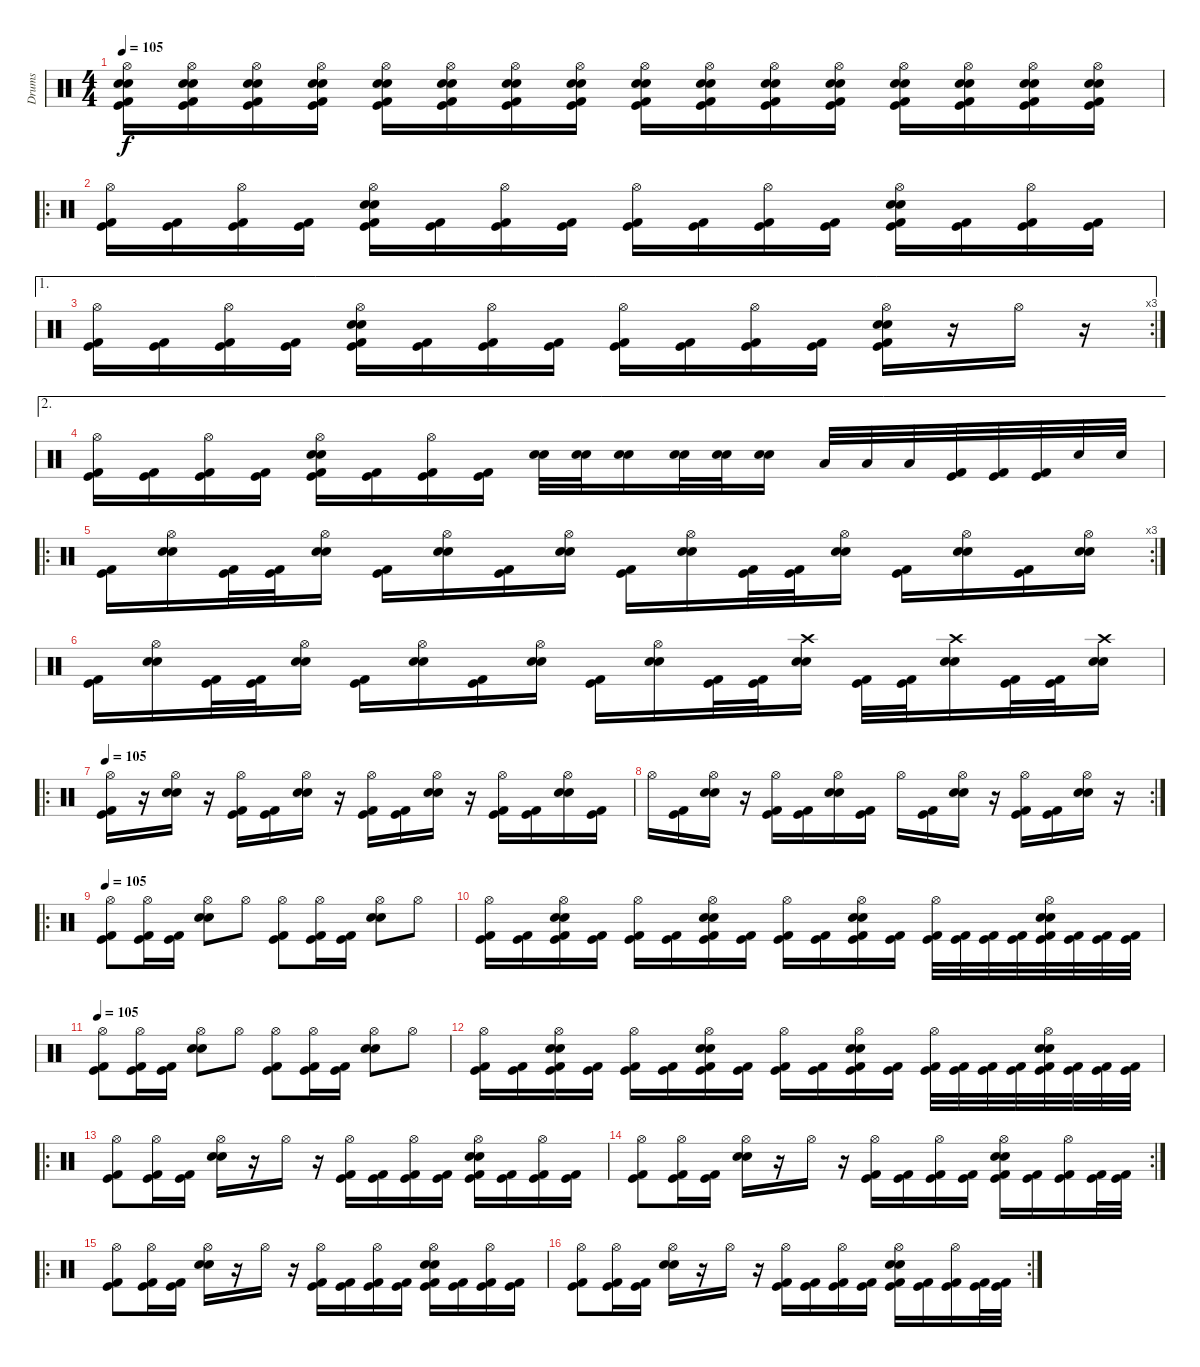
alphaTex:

\track ("Drums" "Drums") {instrument percussion}
\staff {score}
\articulation defaults
\ts (4 4)
\tempo 105
\clef neutral
\ks c
("Hi-Hat (open)" "Electric Snare (hit)" "Snare (hit) 2" "Kick (hit)" "Kick (hit) 2").16{dy f} ("Hi-Hat (open)" "Electric Snare (hit)" "Snare (hit) 2" "Kick (hit)" "Kick (hit) 2").16 ("Hi-Hat (open)" "Electric Snare (hit)" "Snare (hit) 2" "Kick (hit)" "Kick (hit) 2").16 ("Hi-Hat (open)" "Electric Snare (hit)" "Snare (hit) 2" "Kick (hit)" "Kick (hit) 2").16 ("Hi-Hat (open)" "Electric Snare (hit)" "Snare (hit) 2" "Kick (hit)" "Kick (hit) 2").16 ("Hi-Hat (open)" "Electric Snare (hit)" "Snare (hit) 2" "Kick (hit)" "Kick (hit) 2").16 ("Hi-Hat (open)" "Electric Snare (hit)" "Snare (hit) 2" "Kick (hit)" "Kick (hit) 2").16 ("Hi-Hat (open)" "Electric Snare (hit)" "Snare (hit) 2" "Kick (hit)" "Kick (hit) 2").16 ("Hi-Hat (open)" "Electric Snare (hit)" "Snare (hit) 2" "Kick (hit)" "Kick (hit) 2").16 ("Hi-Hat (open)" "Electric Snare (hit)" "Snare (hit) 2" "Kick (hit)" "Kick (hit) 2").16 ("Hi-Hat (open)" "Electric Snare (hit)" "Snare (hit) 2" "Kick (hit)" "Kick (hit) 2").16 ("Hi-Hat (open)" "Electric Snare (hit)" "Snare (hit) 2" "Kick (hit)" "Kick (hit) 2").16 ("Hi-Hat (open)" "Electric Snare (hit)" "Snare (hit) 2" "Kick (hit)" "Kick (hit) 2").16 ("Hi-Hat (open)" "Electric Snare (hit)" "Snare (hit) 2" "Kick (hit)" "Kick (hit) 2").16 ("Hi-Hat (open)" "Electric Snare (hit)" "Snare (hit) 2" "Kick (hit)" "Kick (hit) 2").16 ("Hi-Hat (open)" "Electric Snare (hit)" "Snare (hit) 2" "Kick (hit)" "Kick (hit) 2").16 |
\ro
("Hi-Hat (open)" "Kick (hit)" "Kick (hit) 2").16 ("Kick (hit)" "Kick (hit) 2").16 ("Hi-Hat (open)" "Kick (hit)" "Kick (hit) 2").16 ("Kick (hit)" "Kick (hit) 2").16 ("Hi-Hat (open)" "Electric Snare (hit)" "Snare (hit) 2" "Kick (hit)" "Kick (hit) 2").16 ("Kick (hit)" "Kick (hit) 2").16 ("Hi-Hat (open)" "Kick (hit)" "Kick (hit) 2").16 ("Kick (hit)" "Kick (hit) 2").16 ("Hi-Hat (open)" "Kick (hit)" "Kick (hit) 2").16 ("Kick (hit)" "Kick (hit) 2").16 ("Hi-Hat (open)" "Kick (hit)" "Kick (hit) 2").16 ("Kick (hit)" "Kick (hit) 2").16 ("Hi-Hat (open)" "Electric Snare (hit)" "Snare (hit) 2" "Kick (hit)" "Kick (hit) 2").16 ("Kick (hit)" "Kick (hit) 2").16 ("Hi-Hat (open)" "Kick (hit)" "Kick (hit) 2").16 ("Kick (hit)" "Kick (hit) 2").16 |
\ae 1
\rc 3
("Hi-Hat (open)" "Kick (hit)" "Kick (hit) 2").16 ("Kick (hit)" "Kick (hit) 2").16 ("Hi-Hat (open)" "Kick (hit)" "Kick (hit) 2").16 ("Kick (hit)" "Kick (hit) 2").16 ("Hi-Hat (open)" "Electric Snare (hit)" "Snare (hit) 2" "Kick (hit)" "Kick (hit) 2").16 ("Kick (hit)" "Kick (hit) 2").16 ("Hi-Hat (open)" "Kick (hit)" "Kick (hit) 2").16 ("Kick (hit)" "Kick (hit) 2").16 ("Hi-Hat (open)" "Kick (hit)" "Kick (hit) 2").16 ("Kick (hit)" "Kick (hit) 2").16 ("Hi-Hat (open)" "Kick (hit)" "Kick (hit) 2").16 ("Kick (hit)" "Kick (hit) 2").16 ("Hi-Hat (open)" "Electric Snare (hit)" "Snare (hit) 2" "Kick (hit)" "Kick (hit) 2").16 r.16 "Hi-Hat (open)".16 r.16 |
\ae 2
("Hi-Hat (open)" "Kick (hit)" "Kick (hit) 2").16 ("Kick (hit)" "Kick (hit) 2").16 ("Hi-Hat (open)" "Kick (hit)" "Kick (hit) 2").16 ("Kick (hit)" "Kick (hit) 2").16 ("Hi-Hat (open)" "Electric Snare (hit)" "Snare (hit) 2" "Kick (hit)" "Kick (hit) 2").16 ("Kick (hit)" "Kick (hit) 2").16 ("Hi-Hat (open)" "Kick (hit)" "Kick (hit) 2").16 ("Kick (hit)" "Kick (hit) 2").16 ("Electric Snare (hit)" "Snare (hit) 2").32 ("Electric Snare (hit)" "Snare (hit) 2").32 ("Electric Snare (hit)" "Snare (hit) 2").16 ("Electric Snare (hit)" "Snare (hit) 2").32 ("Electric Snare (hit)" "Snare (hit) 2").32 ("Electric Snare (hit)" "Snare (hit) 2").16 "Low Floor Tom (hit)".32 "Low Floor Tom (hit)".32 "Low Floor Tom (hit)".32 ("Kick (hit)" "Kick (hit) 2").32 ("Kick (hit)" "Kick (hit) 2").32 ("Kick (hit)" "Kick (hit) 2").32 "Snare (hit) 2".32 "Snare (hit) 2".32 |
\ro
\rc 3
("Kick (hit)" "Kick (hit) 2").16 ("Hi-Hat (open)" "Electric Snare (hit)" "Snare (hit) 2").16 ("Kick (hit)" "Kick (hit) 2").32 ("Kick (hit)" "Kick (hit) 2").32 ("Hi-Hat (open)" "Electric Snare (hit)" "Snare (hit) 2").16 ("Kick (hit)" "Kick (hit) 2").16 ("Hi-Hat (open)" "Electric Snare (hit)" "Snare (hit) 2").16 ("Kick (hit)" "Kick (hit) 2").16 ("Hi-Hat (open)" "Electric Snare (hit)" "Snare (hit) 2").16 ("Kick (hit)" "Kick (hit) 2").16 ("Hi-Hat (open)" "Electric Snare (hit)" "Snare (hit) 2").16 ("Kick (hit)" "Kick (hit) 2").32 ("Kick (hit)" "Kick (hit) 2").32 ("Hi-Hat (open)" "Electric Snare (hit)" "Snare (hit) 2").16 ("Kick (hit)" "Kick (hit) 2").16 ("Hi-Hat (open)" "Electric Snare (hit)" "Snare (hit) 2").16 ("Kick (hit)" "Kick (hit) 2").16 ("Hi-Hat (open)" "Electric Snare (hit)" "Snare (hit) 2").16 |
("Kick (hit)" "Kick (hit) 2").16 ("Hi-Hat (open)" "Electric Snare (hit)" "Snare (hit) 2").16 ("Kick (hit)" "Kick (hit) 2").32 ("Kick (hit)" "Kick (hit) 2").32 ("Hi-Hat (open)" "Electric Snare (hit)" "Snare (hit) 2").16 ("Kick (hit)" "Kick (hit) 2").16 ("Hi-Hat (open)" "Electric Snare (hit)" "Snare (hit) 2").16 ("Kick (hit)" "Kick (hit) 2").16 ("Hi-Hat (open)" "Electric Snare (hit)" "Snare (hit) 2").16 ("Kick (hit)" "Kick (hit) 2").16 ("Hi-Hat (open)" "Electric Snare (hit)" "Snare (hit) 2").16 ("Kick (hit)" "Kick (hit) 2").32 ("Kick (hit)" "Kick (hit) 2").32 ("Crash high (hit)" "Electric Snare (hit)" "Snare (hit) 2").16 ("Kick (hit)" "Kick (hit) 2").32 ("Kick (hit)" "Kick (hit) 2").32 ("Crash high (hit)" "Electric Snare (hit)" "Snare (hit) 2").16 ("Kick (hit)" "Kick (hit) 2").32 ("Kick (hit)" "Kick (hit) 2").32 ("Crash high (hit)" "Electric Snare (hit)" "Snare (hit) 2").16 |
\ro
\tempo 105
("Hi-Hat (open)" "Kick (hit)" "Kick (hit) 2").16 r.16 ("Hi-Hat (open)" "Electric Snare (hit)" "Snare (hit) 2").16 r.16 ("Hi-Hat (open)" "Kick (hit)" "Kick (hit) 2").16 ("Kick (hit)" "Kick (hit) 2").16 ("Hi-Hat (open)" "Electric Snare (hit)" "Snare (hit) 2").16 r.16 ("Hi-Hat (open)" "Kick (hit)" "Kick (hit) 2").16 ("Kick (hit)" "Kick (hit) 2").16 ("Hi-Hat (open)" "Electric Snare (hit)" "Snare (hit) 2").16 r.16 ("Hi-Hat (open)" "Kick (hit)" "Kick (hit) 2").16 ("Kick (hit)" "Kick (hit) 2").16 ("Hi-Hat (open)" "Electric Snare (hit)" "Snare (hit) 2").16 ("Kick (hit)" "Kick (hit) 2").16 |
\rc 2 "Hi-Hat (open)".16
("Kick (hit)" "Kick (hit) 2").16 ("Hi-Hat (open)" "Snare (hit) 2" "Electric Snare (hit)").16 r.16 ("Hi-Hat (open)" "Kick (hit)" "Kick (hit) 2").16 ("Kick (hit)" "Kick (hit) 2").16 ("Hi-Hat (open)" "Electric Snare (hit)" "Snare (hit) 2").16 ("Kick (hit)" "Kick (hit) 2").16 "Hi-Hat (open)".16 ("Kick (hit)" "Kick (hit) 2").16 ("Hi-Hat (open)" "Electric Snare (hit)" "Snare (hit) 2").16 r.16 ("Hi-Hat (open)" "Kick (hit)" "Kick (hit) 2").16 ("Kick (hit)" "Kick (hit) 2").16 ("Hi-Hat (open)" "Snare (hit) 2" "Electric Snare (hit)").16 r.16 |
\ro
\tempo 105
("Hi-Hat (open)" "Kick (hit)" "Kick (hit) 2").8 ("Hi-Hat (open)" "Kick (hit)" "Kick (hit) 2").16 ("Kick (hit)" "Kick (hit) 2").16 ("Hi-Hat (open)" "Electric Snare (hit)" "Snare (hit) 2").8 "Hi-Hat (open)".8 ("Hi-Hat (open)" "Kick (hit)" "Kick (hit) 2").8 ("Hi-Hat (open)" "Kick (hit)" "Kick (hit) 2").16 ("Kick (hit)" "Kick (hit) 2").16 ("Hi-Hat (open)" "Electric Snare (hit)" "Snare (hit) 2").8 "Hi-Hat (open)".8 |
("Hi-Hat (open)" "Kick (hit)" "Kick (hit) 2").16 ("Kick (hit)" "Kick (hit) 2").16 ("Electric Snare (hit)" "Hi-Hat (open)" "Snare (hit) 2" "Kick (hit)" "Kick (hit) 2").16 ("Kick (hit)" "Kick (hit) 2").16 ("Hi-Hat (open)" "Kick (hit)" "Kick (hit) 2").16 ("Kick (hit)" "Kick (hit) 2").16 ("Electric Snare (hit)" "Hi-Hat (open)" "Snare (hit) 2" "Kick (hit)" "Kick (hit) 2").16 ("Kick (hit)" "Kick (hit) 2").16 ("Hi-Hat (open)" "Kick (hit)" "Kick (hit) 2").16 ("Kick (hit)" "Kick (hit) 2").16 ("Electric Snare (hit)" "Hi-Hat (open)" "Snare (hit) 2" "Kick (hit)" "Kick (hit) 2").16 ("Kick (hit)" "Kick (hit) 2").16 ("Hi-Hat (open)" "Kick (hit)" "Kick (hit) 2").32 ("Kick (hit)" "Kick (hit) 2").32 ("Kick (hit)" "Kick (hit) 2").32 ("Kick (hit)" "Kick (hit) 2").32 ("Electric Snare (hit)" "Hi-Hat (open)" "Snare (hit) 2" "Kick (hit)" "Kick (hit) 2").32 ("Kick (hit)" "Kick (hit) 2").32 ("Kick (hit)" "Kick (hit) 2").32 ("Kick (hit)" "Kick (hit) 2").32 |
\tempo 105
("Hi-Hat (open)" "Kick (hit)" "Kick (hit) 2").8 ("Hi-Hat (open)" "Kick (hit)" "Kick (hit) 2").16 ("Kick (hit)" "Kick (hit) 2").16 ("Hi-Hat (open)" "Electric Snare (hit)" "Snare (hit) 2").8 "Hi-Hat (open)".8 ("Hi-Hat (open)" "Kick (hit)" "Kick (hit) 2").8 ("Hi-Hat (open)" "Kick (hit)" "Kick (hit) 2").16 ("Kick (hit)" "Kick (hit) 2").16 ("Hi-Hat (open)" "Electric Snare (hit)" "Snare (hit) 2").8 "Hi-Hat (open)".8 |
("Hi-Hat (open)" "Kick (hit)" "Kick (hit) 2").16 ("Kick (hit)" "Kick (hit) 2").16 ("Electric Snare (hit)" "Hi-Hat (open)" "Snare (hit) 2" "Kick (hit)" "Kick (hit) 2").16 ("Kick (hit)" "Kick (hit) 2").16 ("Hi-Hat (open)" "Kick (hit)" "Kick (hit) 2").16 ("Kick (hit)" "Kick (hit) 2").16 ("Electric Snare (hit)" "Hi-Hat (open)" "Snare (hit) 2" "Kick (hit)" "Kick (hit) 2").16 ("Kick (hit)" "Kick (hit) 2").16 ("Hi-Hat (open)" "Kick (hit)" "Kick (hit) 2").16 ("Kick (hit)" "Kick (hit) 2").16 ("Electric Snare (hit)" "Hi-Hat (open)" "Snare (hit) 2" "Kick (hit)" "Kick (hit) 2").16 ("Kick (hit)" "Kick (hit) 2").16 ("Hi-Hat (open)" "Kick (hit)" "Kick (hit) 2").32 ("Kick (hit)" "Kick (hit) 2").32 ("Kick (hit)" "Kick (hit) 2").32 ("Kick (hit)" "Kick (hit) 2").32 ("Electric Snare (hit)" "Hi-Hat (open)" "Snare (hit) 2" "Kick (hit)" "Kick (hit) 2").32 ("Kick (hit)" "Kick (hit) 2").32 ("Kick (hit)" "Kick (hit) 2").32 ("Kick (hit)" "Kick (hit) 2").32 |
\ro
("Hi-Hat (open)" "Kick (hit)" "Kick (hit) 2").8 ("Hi-Hat (open)" "Kick (hit)" "Kick (hit) 2").16 ("Kick (hit)" "Kick (hit) 2").16 ("Hi-Hat (open)" "Electric Snare (hit)" "Snare (hit) 2").16 r.16 "Hi-Hat (open)".16 r.16 ("Hi-Hat (open)" "Kick (hit)" "Kick (hit) 2").16 ("Kick (hit)" "Kick (hit) 2").16 ("Hi-Hat (open)" "Kick (hit)" "Kick (hit) 2").16 ("Kick (hit)" "Kick (hit) 2").16 ("Electric Snare (hit)" "Hi-Hat (open)" "Snare (hit) 2" "Kick (hit)" "Kick (hit) 2").16 ("Kick (hit)" "Kick (hit) 2").16 ("Hi-Hat (open)" "Kick (hit)" "Kick (hit) 2").16 ("Kick (hit)" "Kick (hit) 2").16 |
\rc 2
("Hi-Hat (open)" "Kick (hit)" "Kick (hit) 2").8 ("Hi-Hat (open)" "Kick (hit)" "Kick (hit) 2").16 ("Kick (hit)" "Kick (hit) 2").16 ("Hi-Hat (open)" "Electric Snare (hit)" "Snare (hit) 2").16 r.16 "Hi-Hat (open)".16 r.16 ("Hi-Hat (open)" "Kick (hit)" "Kick (hit) 2").16 ("Kick (hit)" "Kick (hit) 2").16 ("Hi-Hat (open)" "Kick (hit)" "Kick (hit) 2").16 ("Kick (hit)" "Kick (hit) 2").16 ("Electric Snare (hit)" "Hi-Hat (open)" "Snare (hit) 2" "Kick (hit)" "Kick (hit) 2").16 ("Kick (hit)" "Kick (hit) 2").16 ("Hi-Hat (open)" "Kick (hit)" "Kick (hit) 2").16 ("Kick (hit)" "Kick (hit) 2").32 ("Kick (hit)" "Kick (hit) 2").32 |
\ro
("Hi-Hat (open)" "Kick (hit)" "Kick (hit) 2").8 ("Hi-Hat (open)" "Kick (hit)" "Kick (hit) 2").16 ("Kick (hit)" "Kick (hit) 2").16 ("Hi-Hat (open)" "Electric Snare (hit)" "Snare (hit) 2").16 r.16 "Hi-Hat (open)".16 r.16 ("Hi-Hat (open)" "Kick (hit)" "Kick (hit) 2").16 ("Kick (hit)" "Kick (hit) 2").16 ("Hi-Hat (open)" "Kick (hit)" "Kick (hit) 2").16 ("Kick (hit)" "Kick (hit) 2").16 ("Electric Snare (hit)" "Hi-Hat (open)" "Snare (hit) 2" "Kick (hit)" "Kick (hit) 2").16 ("Kick (hit)" "Kick (hit) 2").16 ("Hi-Hat (open)" "Kick (hit)" "Kick (hit) 2").16 ("Kick (hit)" "Kick (hit) 2").16 |
\rc 2
("Hi-Hat (open)" "Kick (hit)" "Kick (hit) 2").8 ("Hi-Hat (open)" "Kick (hit)" "Kick (hit) 2").16 ("Kick (hit)" "Kick (hit) 2").16 ("Hi-Hat (open)" "Electric Snare (hit)" "Snare (hit) 2").16 r.16 "Hi-Hat (open)".16 r.16 ("Hi-Hat (open)" "Kick (hit)" "Kick (hit) 2").16 ("Kick (hit)" "Kick (hit) 2").16 ("Hi-Hat (open)" "Kick (hit)" "Kick (hit) 2").16 ("Kick (hit)" "Kick (hit) 2").16 ("Electric Snare (hit)" "Hi-Hat (open)" "Snare (hit) 2" "Kick (hit)" "Kick (hit) 2").16 ("Kick (hit)" "Kick (hit) 2").16 ("Hi-Hat (open)" "Kick (hit)" "Kick (hit) 2").16 ("Kick (hit)" "Kick (hit) 2").32 ("Kick (hit)" "Kick (hit) 2").32
